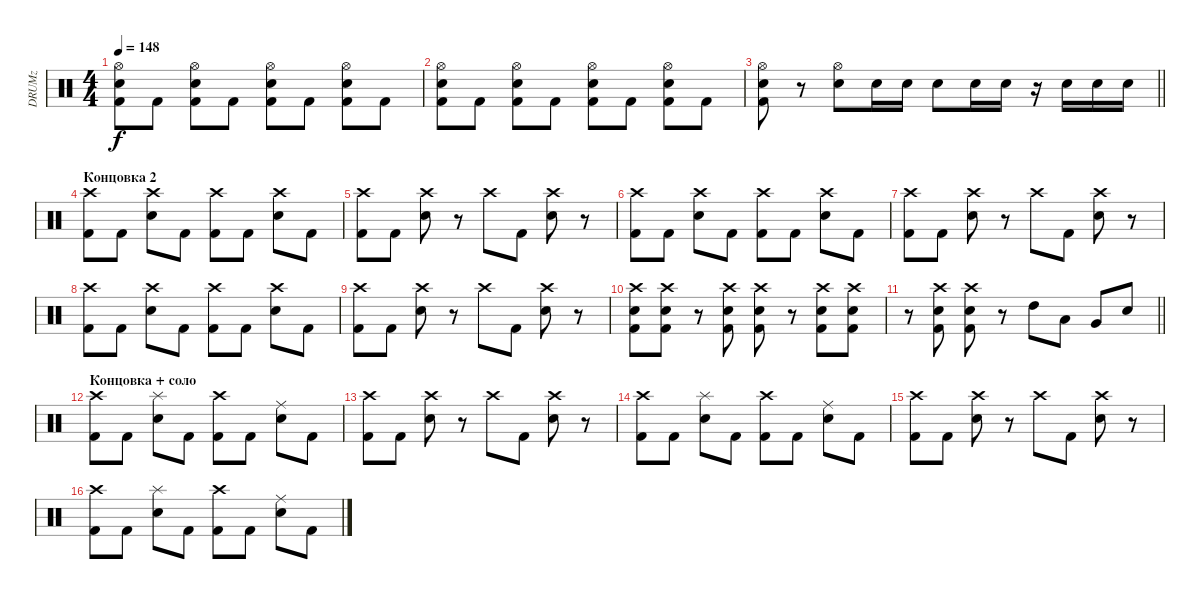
\track ("DRUMz" "DRUMz") {instrument percussion}
\staff {score}
\articulation defaults
\ts (4 4)
\tempo 148
\clef neutral
\ks c
("Kick (hit) 2" "Snare (hit) 2" "Hi-Hat (open)").8{dy f} "Kick (hit) 2".8 ("Snare (hit) 2" "Kick (hit) 2" "Hi-Hat (open)").8 "Kick (hit) 2".8 ("Snare (hit) 2" "Kick (hit) 2" "Hi-Hat (open)").8 "Kick (hit) 2".8 ("Kick (hit) 2" "Hi-Hat (open)" "Snare (hit) 2").8 "Kick (hit) 2".8 |
("Snare (hit) 2" "Hi-Hat (open)" "Kick (hit) 2").8 "Kick (hit) 2".8 ("Kick (hit) 2" "Snare (hit) 2" "Hi-Hat (open)").8 "Kick (hit) 2".8 ("Kick (hit) 2" "Snare (hit) 2" "Hi-Hat (open)").8 "Kick (hit) 2".8 ("Snare (hit) 2" "Kick (hit) 2" "Hi-Hat (open)").8 "Kick (hit) 2".8 |
\barLineRight lightlight
("Kick (hit) 2" "Snare (hit) 2" "Hi-Hat (open)").8 r.8 ("Snare (hit) 2" "Hi-Hat (open)").8 "Snare (hit) 2".16 "Snare (hit) 2".16 "Snare (hit) 2".8 "Snare (hit) 2".16 "Snare (hit) 2".16 r.16 "Snare (hit) 2".16 "Snare (hit) 2".16 "Snare (hit) 2".16 |
\section ("" "Концовка 2")
("Crash high (hit)" "Kick (hit) 2").8 "Kick (hit) 2".8 ("Crash high (hit)" "Snare (hit) 2").8 "Kick (hit) 2".8 ("Crash high (hit)" "Kick (hit) 2").8 "Kick (hit) 2".8 ("Crash high (hit)" "Snare (hit) 2").8 "Kick (hit) 2".8 |
("Kick (hit) 2" "Crash high (hit)").8 "Kick (hit) 2".8 ("Crash high (hit)" "Snare (hit) 2").8 r.8 "Crash high (hit)".8 "Kick (hit) 2".8 ("Crash high (hit)" "Snare (hit) 2").8 r.8 |
("Crash high (hit)" "Kick (hit) 2").8 "Kick (hit) 2".8 ("Crash high (hit)" "Snare (hit) 2").8 "Kick (hit) 2".8 ("Crash high (hit)" "Kick (hit) 2").8 "Kick (hit) 2".8 ("Crash high (hit)" "Snare (hit) 2").8 "Kick (hit) 2".8 |
("Kick (hit) 2" "Crash high (hit)").8 "Kick (hit) 2".8 ("Crash high (hit)" "Snare (hit) 2").8 r.8 "Crash high (hit)".8 "Kick (hit) 2".8 ("Crash high (hit)" "Snare (hit) 2").8 r.8 |
("Crash high (hit)" "Kick (hit) 2").8 "Kick (hit) 2".8 ("Crash high (hit)" "Snare (hit) 2").8 "Kick (hit) 2".8 ("Crash high (hit)" "Kick (hit) 2").8 "Kick (hit) 2".8 ("Crash high (hit)" "Snare (hit) 2").8 "Kick (hit) 2".8 |
("Kick (hit) 2" "Crash high (hit)").8 "Kick (hit) 2".8 ("Crash high (hit)" "Snare (hit) 2").8 r.8 "Crash high (hit)".8 "Kick (hit) 2".8 ("Crash high (hit)" "Snare (hit) 2").8 r.8 |
("Snare (hit) 2" "Crash high (hit)" "Kick (hit) 2").8 ("Snare (hit) 2" "Crash high (hit)" "Kick (hit) 2").8 r.8 ("Snare (hit) 2" "Crash high (hit)" "Kick (hit) 2").8 ("Crash high (hit)" "Snare (hit) 2" "Kick (hit) 2").8 r.8 ("Kick (hit) 2" "Crash high (hit)" "Snare (hit) 2").8 ("Kick (hit) 2" "Snare (hit) 2" "Crash high (hit)").8 |
\barLineRight lightlight
r.8 ("Kick (hit) 2" "Crash high (hit)" "Snare (hit) 2").8 ("Crash high (hit)" "Snare (hit) 2" "Kick (hit) 2").8 r.8 "High Tom (hit)".8 "Low Tom (hit)".8 "Very Low Tom (hit)".8 "Snare (hit) 2".8 |
\section ("" "Концовка + соло")
("Crash high (hit)" "Kick (hit) 2").8 "Kick (hit) 2".8 ("Splash (hit)" "Snare (hit) 2").8 "Kick (hit) 2".8 ("Crash high (hit)" "Kick (hit) 2").8 "Kick (hit) 2".8 ("Ride (middle)" "Snare (hit) 2").8 "Kick (hit) 2".8 |
("Kick (hit) 2" "Crash high (hit)").8 "Kick (hit) 2".8 ("Crash high (hit)" "Snare (hit) 2").8 r.8 "Crash high (hit)".8 "Kick (hit) 2".8 ("Crash high (hit)" "Snare (hit) 2").8 r.8 |
("Crash high (hit)" "Kick (hit) 2").8 "Kick (hit) 2".8 ("Splash (hit)" "Snare (hit) 2").8 "Kick (hit) 2".8 ("Crash high (hit)" "Kick (hit) 2").8 "Kick (hit) 2".8 ("Ride (middle)" "Snare (hit) 2").8 "Kick (hit) 2".8 |
("Kick (hit) 2" "Crash high (hit)").8 "Kick (hit) 2".8 ("Crash high (hit)" "Snare (hit) 2").8 r.8 "Crash high (hit)".8 "Kick (hit) 2".8 ("Crash high (hit)" "Snare (hit) 2").8 r.8 |
("Crash high (hit)" "Kick (hit) 2").8 "Kick (hit) 2".8 ("Splash (hit)" "Snare (hit) 2").8 "Kick (hit) 2".8 ("Crash high (hit)" "Kick (hit) 2").8 "Kick (hit) 2".8 ("Ride (middle)" "Snare (hit) 2").8 "Kick (hit) 2".8
